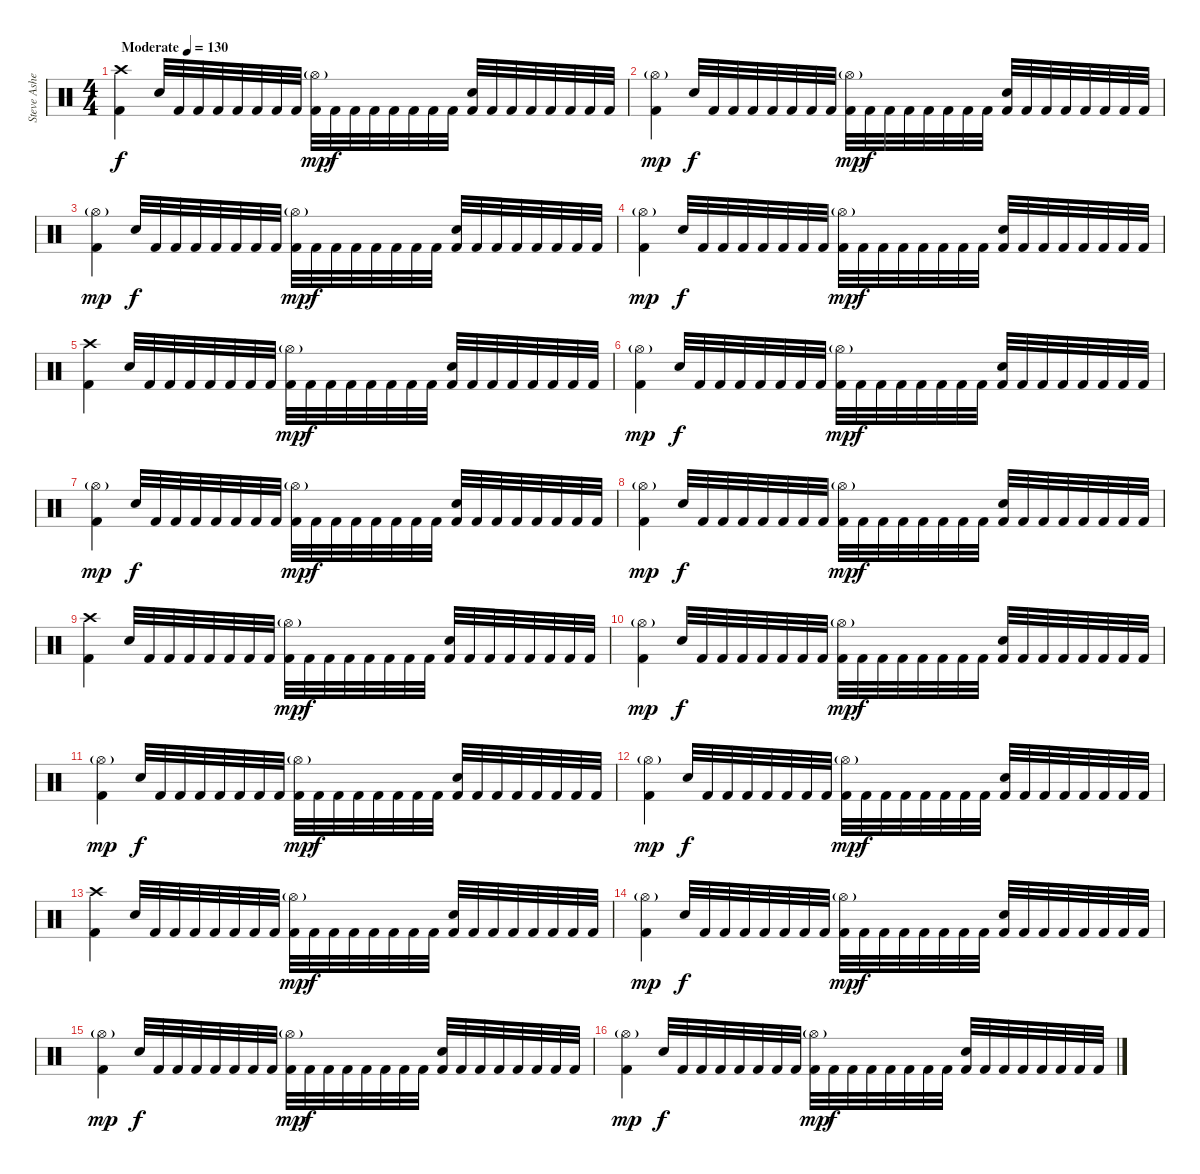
\track ("Steve Asheim" "Steve Ashe") {instrument percussion}
\staff {score}
\articulation defaults
\ts (4 4)
\tempo (130 "Moderate")
\tempo 140
\tempo (130 "Moderate")
\clef neutral
\ks c
("Crash high (hit)" "Kick (hit) 2").4{dy f} "Electric Snare (hit)".32 "Kick (hit) 2".32 "Kick (hit) 2".32 "Kick (hit) 2".32 "Kick (hit) 2".32 "Kick (hit) 2".32 "Kick (hit) 2".32 "Kick (hit) 2".32 ("Hi-Hat (open)"{g} "Kick (hit) 2").32{dy mp} "Kick (hit) 2".32{dy f} "Kick (hit) 2".32 "Kick (hit) 2".32 "Kick (hit) 2".32 "Kick (hit) 2".32 "Kick (hit) 2".32 "Kick (hit) 2".32 ("Electric Snare (hit)" "Kick (hit) 2").32 "Kick (hit) 2".32 "Kick (hit) 2".32 "Kick (hit) 2".32 "Kick (hit) 2".32 "Kick (hit) 2".32 "Kick (hit) 2".32 "Kick (hit) 2".32 |
("Hi-Hat (open)"{g} "Kick (hit) 2").4{dy mp} "Electric Snare (hit)".32{dy f} "Kick (hit) 2".32 "Kick (hit) 2".32 "Kick (hit) 2".32 "Kick (hit) 2".32 "Kick (hit) 2".32 "Kick (hit) 2".32 "Kick (hit) 2".32 ("Hi-Hat (open)"{g} "Kick (hit) 2").32{dy mp} "Kick (hit) 2".32{dy f} "Kick (hit) 2".32 "Kick (hit) 2".32 "Kick (hit) 2".32 "Kick (hit) 2".32 "Kick (hit) 2".32 "Kick (hit) 2".32 ("Electric Snare (hit)" "Kick (hit) 2").32 "Kick (hit) 2".32 "Kick (hit) 2".32 "Kick (hit) 2".32 "Kick (hit) 2".32 "Kick (hit) 2".32 "Kick (hit) 2".32 "Kick (hit) 2".32 |
("Hi-Hat (open)"{g} "Kick (hit) 2").4{dy mp} "Electric Snare (hit)".32{dy f} "Kick (hit) 2".32 "Kick (hit) 2".32 "Kick (hit) 2".32 "Kick (hit) 2".32 "Kick (hit) 2".32 "Kick (hit) 2".32 "Kick (hit) 2".32 ("Hi-Hat (open)"{g} "Kick (hit) 2").32{dy mp} "Kick (hit) 2".32{dy f} "Kick (hit) 2".32 "Kick (hit) 2".32 "Kick (hit) 2".32 "Kick (hit) 2".32 "Kick (hit) 2".32 "Kick (hit) 2".32 ("Electric Snare (hit)" "Kick (hit) 2").32 "Kick (hit) 2".32 "Kick (hit) 2".32 "Kick (hit) 2".32 "Kick (hit) 2".32 "Kick (hit) 2".32 "Kick (hit) 2".32 "Kick (hit) 2".32 |
("Hi-Hat (open)"{g} "Kick (hit) 2").4{dy mp} "Electric Snare (hit)".32{dy f} "Kick (hit) 2".32 "Kick (hit) 2".32 "Kick (hit) 2".32 "Kick (hit) 2".32 "Kick (hit) 2".32 "Kick (hit) 2".32 "Kick (hit) 2".32 ("Hi-Hat (open)"{g} "Kick (hit) 2").32{dy mp} "Kick (hit) 2".32{dy f} "Kick (hit) 2".32 "Kick (hit) 2".32 "Kick (hit) 2".32 "Kick (hit) 2".32 "Kick (hit) 2".32 "Kick (hit) 2".32 ("Electric Snare (hit)" "Kick (hit) 2").32 "Kick (hit) 2".32 "Kick (hit) 2".32 "Kick (hit) 2".32 "Kick (hit) 2".32 "Kick (hit) 2".32 "Kick (hit) 2".32 "Kick (hit) 2".32 |
("Crash high (hit)" "Kick (hit) 2").4 "Electric Snare (hit)".32 "Kick (hit) 2".32 "Kick (hit) 2".32 "Kick (hit) 2".32 "Kick (hit) 2".32 "Kick (hit) 2".32 "Kick (hit) 2".32 "Kick (hit) 2".32 ("Hi-Hat (open)"{g} "Kick (hit) 2").32{dy mp} "Kick (hit) 2".32{dy f} "Kick (hit) 2".32 "Kick (hit) 2".32 "Kick (hit) 2".32 "Kick (hit) 2".32 "Kick (hit) 2".32 "Kick (hit) 2".32 ("Electric Snare (hit)" "Kick (hit) 2").32 "Kick (hit) 2".32 "Kick (hit) 2".32 "Kick (hit) 2".32 "Kick (hit) 2".32 "Kick (hit) 2".32 "Kick (hit) 2".32 "Kick (hit) 2".32 |
("Hi-Hat (open)"{g} "Kick (hit) 2").4{dy mp} "Electric Snare (hit)".32{dy f} "Kick (hit) 2".32 "Kick (hit) 2".32 "Kick (hit) 2".32 "Kick (hit) 2".32 "Kick (hit) 2".32 "Kick (hit) 2".32 "Kick (hit) 2".32 ("Hi-Hat (open)"{g} "Kick (hit) 2").32{dy mp} "Kick (hit) 2".32{dy f} "Kick (hit) 2".32 "Kick (hit) 2".32 "Kick (hit) 2".32 "Kick (hit) 2".32 "Kick (hit) 2".32 "Kick (hit) 2".32 ("Electric Snare (hit)" "Kick (hit) 2").32 "Kick (hit) 2".32 "Kick (hit) 2".32 "Kick (hit) 2".32 "Kick (hit) 2".32 "Kick (hit) 2".32 "Kick (hit) 2".32 "Kick (hit) 2".32 |
("Hi-Hat (open)"{g} "Kick (hit) 2").4{dy mp} "Electric Snare (hit)".32{dy f} "Kick (hit) 2".32 "Kick (hit) 2".32 "Kick (hit) 2".32 "Kick (hit) 2".32 "Kick (hit) 2".32 "Kick (hit) 2".32 "Kick (hit) 2".32 ("Hi-Hat (open)"{g} "Kick (hit) 2").32{dy mp} "Kick (hit) 2".32{dy f} "Kick (hit) 2".32 "Kick (hit) 2".32 "Kick (hit) 2".32 "Kick (hit) 2".32 "Kick (hit) 2".32 "Kick (hit) 2".32 ("Electric Snare (hit)" "Kick (hit) 2").32 "Kick (hit) 2".32 "Kick (hit) 2".32 "Kick (hit) 2".32 "Kick (hit) 2".32 "Kick (hit) 2".32 "Kick (hit) 2".32 "Kick (hit) 2".32 |
("Hi-Hat (open)"{g} "Kick (hit) 2").4{dy mp} "Electric Snare (hit)".32{dy f} "Kick (hit) 2".32 "Kick (hit) 2".32 "Kick (hit) 2".32 "Kick (hit) 2".32 "Kick (hit) 2".32 "Kick (hit) 2".32 "Kick (hit) 2".32 ("Hi-Hat (open)"{g} "Kick (hit) 2").32{dy mp} "Kick (hit) 2".32{dy f} "Kick (hit) 2".32 "Kick (hit) 2".32 "Kick (hit) 2".32 "Kick (hit) 2".32 "Kick (hit) 2".32 "Kick (hit) 2".32 ("Electric Snare (hit)" "Kick (hit) 2").32 "Kick (hit) 2".32 "Kick (hit) 2".32 "Kick (hit) 2".32 "Kick (hit) 2".32 "Kick (hit) 2".32 "Kick (hit) 2".32 "Kick (hit) 2".32 |
("Crash high (hit)" "Kick (hit) 2").4 "Electric Snare (hit)".32 "Kick (hit) 2".32 "Kick (hit) 2".32 "Kick (hit) 2".32 "Kick (hit) 2".32 "Kick (hit) 2".32 "Kick (hit) 2".32 "Kick (hit) 2".32 ("Hi-Hat (open)"{g} "Kick (hit) 2").32{dy mp} "Kick (hit) 2".32{dy f} "Kick (hit) 2".32 "Kick (hit) 2".32 "Kick (hit) 2".32 "Kick (hit) 2".32 "Kick (hit) 2".32 "Kick (hit) 2".32 ("Electric Snare (hit)" "Kick (hit) 2").32 "Kick (hit) 2".32 "Kick (hit) 2".32 "Kick (hit) 2".32 "Kick (hit) 2".32 "Kick (hit) 2".32 "Kick (hit) 2".32 "Kick (hit) 2".32 |
("Hi-Hat (open)"{g} "Kick (hit) 2").4{dy mp} "Electric Snare (hit)".32{dy f} "Kick (hit) 2".32 "Kick (hit) 2".32 "Kick (hit) 2".32 "Kick (hit) 2".32 "Kick (hit) 2".32 "Kick (hit) 2".32 "Kick (hit) 2".32 ("Hi-Hat (open)"{g} "Kick (hit) 2").32{dy mp} "Kick (hit) 2".32{dy f} "Kick (hit) 2".32 "Kick (hit) 2".32 "Kick (hit) 2".32 "Kick (hit) 2".32 "Kick (hit) 2".32 "Kick (hit) 2".32 ("Electric Snare (hit)" "Kick (hit) 2").32 "Kick (hit) 2".32 "Kick (hit) 2".32 "Kick (hit) 2".32 "Kick (hit) 2".32 "Kick (hit) 2".32 "Kick (hit) 2".32 "Kick (hit) 2".32 |
("Hi-Hat (open)"{g} "Kick (hit) 2").4{dy mp} "Electric Snare (hit)".32{dy f} "Kick (hit) 2".32 "Kick (hit) 2".32 "Kick (hit) 2".32 "Kick (hit) 2".32 "Kick (hit) 2".32 "Kick (hit) 2".32 "Kick (hit) 2".32 ("Hi-Hat (open)"{g} "Kick (hit) 2").32{dy mp} "Kick (hit) 2".32{dy f} "Kick (hit) 2".32 "Kick (hit) 2".32 "Kick (hit) 2".32 "Kick (hit) 2".32 "Kick (hit) 2".32 "Kick (hit) 2".32 ("Electric Snare (hit)" "Kick (hit) 2").32 "Kick (hit) 2".32 "Kick (hit) 2".32 "Kick (hit) 2".32 "Kick (hit) 2".32 "Kick (hit) 2".32 "Kick (hit) 2".32 "Kick (hit) 2".32 |
("Hi-Hat (open)"{g} "Kick (hit) 2").4{dy mp} "Electric Snare (hit)".32{dy f} "Kick (hit) 2".32 "Kick (hit) 2".32 "Kick (hit) 2".32 "Kick (hit) 2".32 "Kick (hit) 2".32 "Kick (hit) 2".32 "Kick (hit) 2".32 ("Hi-Hat (open)"{g} "Kick (hit) 2").32{dy mp} "Kick (hit) 2".32{dy f} "Kick (hit) 2".32 "Kick (hit) 2".32 "Kick (hit) 2".32 "Kick (hit) 2".32 "Kick (hit) 2".32 "Kick (hit) 2".32 ("Electric Snare (hit)" "Kick (hit) 2").32 "Kick (hit) 2".32 "Kick (hit) 2".32 "Kick (hit) 2".32 "Kick (hit) 2".32 "Kick (hit) 2".32 "Kick (hit) 2".32 "Kick (hit) 2".32 |
("Crash high (hit)" "Kick (hit) 2").4 "Electric Snare (hit)".32 "Kick (hit) 2".32 "Kick (hit) 2".32 "Kick (hit) 2".32 "Kick (hit) 2".32 "Kick (hit) 2".32 "Kick (hit) 2".32 "Kick (hit) 2".32 ("Hi-Hat (open)"{g} "Kick (hit) 2").32{dy mp} "Kick (hit) 2".32{dy f} "Kick (hit) 2".32 "Kick (hit) 2".32 "Kick (hit) 2".32 "Kick (hit) 2".32 "Kick (hit) 2".32 "Kick (hit) 2".32 ("Electric Snare (hit)" "Kick (hit) 2").32 "Kick (hit) 2".32 "Kick (hit) 2".32 "Kick (hit) 2".32 "Kick (hit) 2".32 "Kick (hit) 2".32 "Kick (hit) 2".32 "Kick (hit) 2".32 |
("Hi-Hat (open)"{g} "Kick (hit) 2").4{dy mp} "Electric Snare (hit)".32{dy f} "Kick (hit) 2".32 "Kick (hit) 2".32 "Kick (hit) 2".32 "Kick (hit) 2".32 "Kick (hit) 2".32 "Kick (hit) 2".32 "Kick (hit) 2".32 ("Hi-Hat (open)"{g} "Kick (hit) 2").32{dy mp} "Kick (hit) 2".32{dy f} "Kick (hit) 2".32 "Kick (hit) 2".32 "Kick (hit) 2".32 "Kick (hit) 2".32 "Kick (hit) 2".32 "Kick (hit) 2".32 ("Electric Snare (hit)" "Kick (hit) 2").32 "Kick (hit) 2".32 "Kick (hit) 2".32 "Kick (hit) 2".32 "Kick (hit) 2".32 "Kick (hit) 2".32 "Kick (hit) 2".32 "Kick (hit) 2".32 |
("Hi-Hat (open)"{g} "Kick (hit) 2").4{dy mp} "Electric Snare (hit)".32{dy f} "Kick (hit) 2".32 "Kick (hit) 2".32 "Kick (hit) 2".32 "Kick (hit) 2".32 "Kick (hit) 2".32 "Kick (hit) 2".32 "Kick (hit) 2".32 ("Hi-Hat (open)"{g} "Kick (hit) 2").32{dy mp} "Kick (hit) 2".32{dy f} "Kick (hit) 2".32 "Kick (hit) 2".32 "Kick (hit) 2".32 "Kick (hit) 2".32 "Kick (hit) 2".32 "Kick (hit) 2".32 ("Electric Snare (hit)" "Kick (hit) 2").32 "Kick (hit) 2".32 "Kick (hit) 2".32 "Kick (hit) 2".32 "Kick (hit) 2".32 "Kick (hit) 2".32 "Kick (hit) 2".32 "Kick (hit) 2".32 |
("Hi-Hat (open)"{g} "Kick (hit) 2").4{dy mp} "Electric Snare (hit)".32{dy f} "Kick (hit) 2".32 "Kick (hit) 2".32 "Kick (hit) 2".32 "Kick (hit) 2".32 "Kick (hit) 2".32 "Kick (hit) 2".32 "Kick (hit) 2".32 ("Hi-Hat (open)"{g} "Kick (hit) 2").32{dy mp} "Kick (hit) 2".32{dy f} "Kick (hit) 2".32 "Kick (hit) 2".32 "Kick (hit) 2".32 "Kick (hit) 2".32 "Kick (hit) 2".32 "Kick (hit) 2".32 ("Electric Snare (hit)" "Kick (hit) 2").32 "Kick (hit) 2".32 "Kick (hit) 2".32 "Kick (hit) 2".32 "Kick (hit) 2".32 "Kick (hit) 2".32 "Kick (hit) 2".32 "Kick (hit) 2".32
